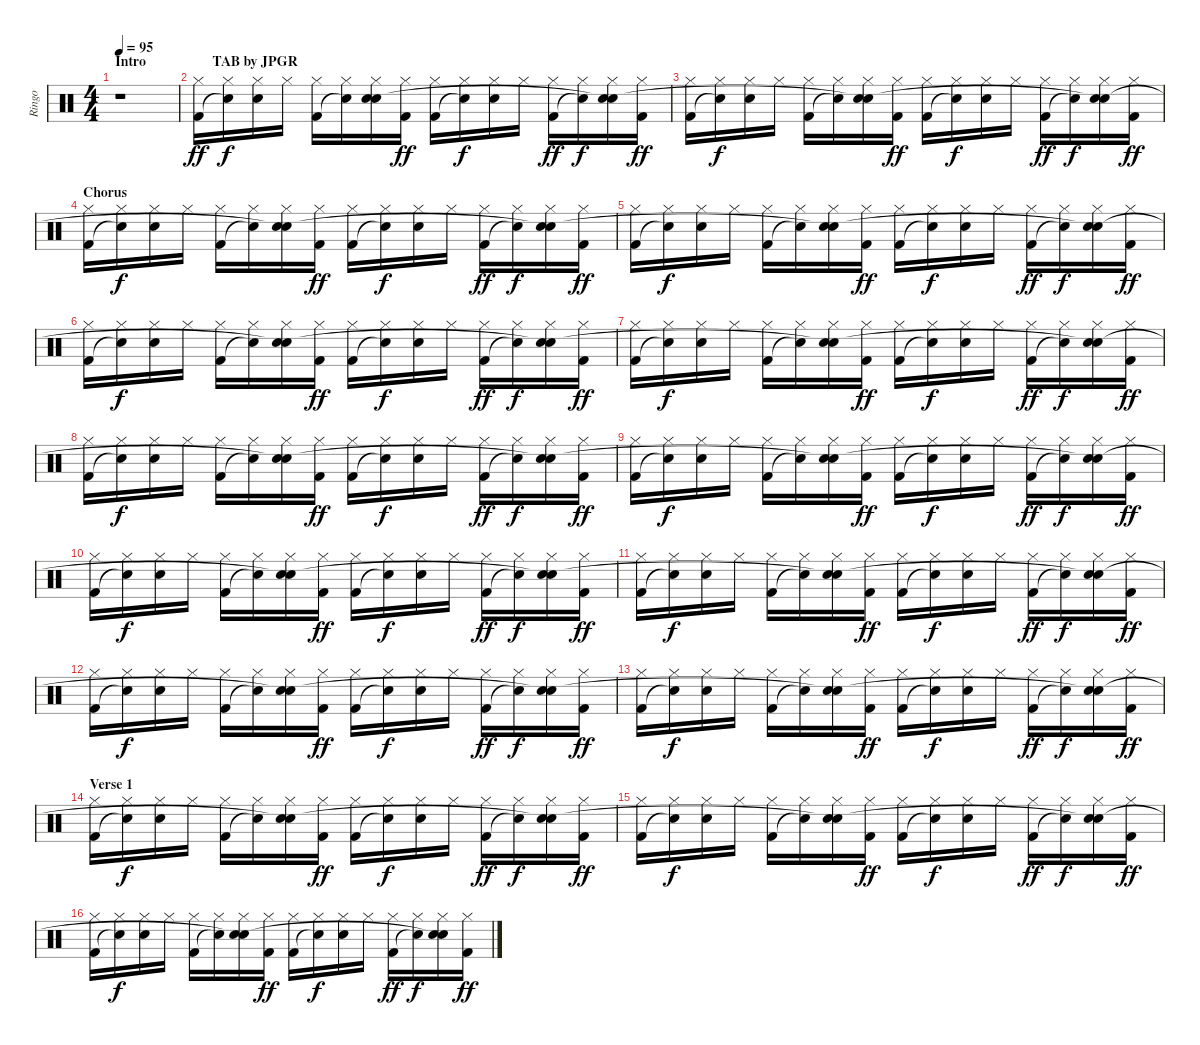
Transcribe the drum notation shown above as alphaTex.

\track ("Ringo" "Ringo") {instrument percussion}
\staff {score}
\articulation defaults
\ts (4 4)
\section ("" "Intro                   TAB by JPGR")
\tempo 95
\clef neutral
\ks c
r.1{dy ff} |
("Hi-Hat (closed)" "Kick (hit) 2").16 ("Hi-Hat (closed)" "Snare (hit)"{t}).16{dy f} ("Hi-Hat (closed)" "Snare (hit) 2").16 "Hi-Hat (closed)".16 ("Hi-Hat (closed)" "Kick (hit) 2").16 ("Hi-Hat (closed)" "Snare (hit)"{t}).16 ("Hi-Hat (closed)" "Snare (hit) 2" "Snare (hit)").16 ("Hi-Hat (closed)" "Kick (hit) 2").16{dy ff} ("Hi-Hat (closed)" "Kick (hit) 2").16 ("Hi-Hat (closed)" "Snare (hit)"{t}).16{dy f} ("Hi-Hat (closed)" "Snare (hit) 2").16 "Hi-Hat (closed)".16 ("Hi-Hat (closed)" "Kick (hit) 2").16{dy ff} ("Hi-Hat (closed)" "Snare (hit)"{t}).16{dy f} ("Hi-Hat (closed)" "Snare (hit) 2" "Snare (hit)"{t}).16 ("Hi-Hat (closed)" "Kick (hit) 2").16{dy ff} |
("Hi-Hat (closed)" "Kick (hit) 2").16 ("Hi-Hat (closed)" "Snare (hit)"{t}).16{dy f} ("Hi-Hat (closed)" "Snare (hit) 2").16 "Hi-Hat (closed)".16 ("Hi-Hat (closed)" "Kick (hit) 2").16 ("Hi-Hat (closed)" "Snare (hit)"{t}).16 ("Hi-Hat (closed)" "Snare (hit) 2" "Snare (hit)"{t}).16 ("Hi-Hat (closed)" "Kick (hit) 2").16{dy ff} ("Hi-Hat (closed)" "Kick (hit) 2").16 ("Hi-Hat (closed)" "Snare (hit)"{t}).16{dy f} ("Hi-Hat (closed)" "Snare (hit) 2").16 "Hi-Hat (closed)".16 ("Hi-Hat (closed)" "Kick (hit) 2").16{dy ff} ("Hi-Hat (closed)" "Snare (hit)"{t}).16{dy f} ("Hi-Hat (closed)" "Snare (hit) 2" "Snare (hit)"{t}).16 ("Hi-Hat (closed)" "Kick (hit) 2").16{dy ff} |
\section ("" "Chorus")
("Hi-Hat (closed)" "Kick (hit) 2").16 ("Hi-Hat (closed)" "Snare (hit)"{t}).16{dy f} ("Hi-Hat (closed)" "Snare (hit) 2").16 "Hi-Hat (closed)".16 ("Hi-Hat (closed)" "Kick (hit) 2").16 ("Hi-Hat (closed)" "Snare (hit)"{t}).16 ("Hi-Hat (closed)" "Snare (hit) 2" "Snare (hit)"{t}).16 ("Hi-Hat (closed)" "Kick (hit) 2").16{dy ff} ("Hi-Hat (closed)" "Kick (hit) 2").16 ("Hi-Hat (closed)" "Snare (hit)"{t}).16{dy f} ("Hi-Hat (closed)" "Snare (hit) 2").16 "Hi-Hat (closed)".16 ("Hi-Hat (closed)" "Kick (hit) 2").16{dy ff} ("Hi-Hat (closed)" "Snare (hit)"{t}).16{dy f} ("Hi-Hat (closed)" "Snare (hit) 2" "Snare (hit)"{t}).16 ("Hi-Hat (closed)" "Kick (hit) 2").16{dy ff} |
("Hi-Hat (closed)" "Kick (hit) 2").16 ("Hi-Hat (closed)" "Snare (hit)"{t}).16{dy f} ("Hi-Hat (closed)" "Snare (hit) 2").16 "Hi-Hat (closed)".16 ("Hi-Hat (closed)" "Kick (hit) 2").16 ("Hi-Hat (closed)" "Snare (hit)"{t}).16 ("Hi-Hat (closed)" "Snare (hit) 2" "Snare (hit)"{t}).16 ("Hi-Hat (closed)" "Kick (hit) 2").16{dy ff} ("Hi-Hat (closed)" "Kick (hit) 2").16 ("Hi-Hat (closed)" "Snare (hit)"{t}).16{dy f} ("Hi-Hat (closed)" "Snare (hit) 2").16 "Hi-Hat (closed)".16 ("Hi-Hat (closed)" "Kick (hit) 2").16{dy ff} ("Hi-Hat (closed)" "Snare (hit)"{t}).16{dy f} ("Hi-Hat (closed)" "Snare (hit) 2" "Snare (hit)"{t}).16 ("Hi-Hat (closed)" "Kick (hit) 2").16{dy ff} |
("Hi-Hat (closed)" "Kick (hit) 2").16 ("Hi-Hat (closed)" "Snare (hit)"{t}).16{dy f} ("Hi-Hat (closed)" "Snare (hit) 2").16 "Hi-Hat (closed)".16 ("Hi-Hat (closed)" "Kick (hit) 2").16 ("Hi-Hat (closed)" "Snare (hit)"{t}).16 ("Hi-Hat (closed)" "Snare (hit) 2" "Snare (hit)"{t}).16 ("Hi-Hat (closed)" "Kick (hit) 2").16{dy ff} ("Hi-Hat (closed)" "Kick (hit) 2").16 ("Hi-Hat (closed)" "Snare (hit)"{t}).16{dy f} ("Hi-Hat (closed)" "Snare (hit) 2").16 "Hi-Hat (closed)".16 ("Hi-Hat (closed)" "Kick (hit) 2").16{dy ff} ("Hi-Hat (closed)" "Snare (hit)"{t}).16{dy f} ("Hi-Hat (closed)" "Snare (hit) 2" "Snare (hit)"{t}).16 ("Hi-Hat (closed)" "Kick (hit) 2").16{dy ff} |
("Hi-Hat (closed)" "Kick (hit) 2").16 ("Hi-Hat (closed)" "Snare (hit)"{t}).16{dy f} ("Hi-Hat (closed)" "Snare (hit) 2").16 "Hi-Hat (closed)".16 ("Hi-Hat (closed)" "Kick (hit) 2").16 ("Hi-Hat (closed)" "Snare (hit)"{t}).16 ("Hi-Hat (closed)" "Snare (hit) 2" "Snare (hit)"{t}).16 ("Hi-Hat (closed)" "Kick (hit) 2").16{dy ff} ("Hi-Hat (closed)" "Kick (hit) 2").16 ("Hi-Hat (closed)" "Snare (hit)"{t}).16{dy f} ("Hi-Hat (closed)" "Snare (hit) 2").16 "Hi-Hat (closed)".16 ("Hi-Hat (closed)" "Kick (hit) 2").16{dy ff} ("Hi-Hat (closed)" "Snare (hit)"{t}).16{dy f} ("Hi-Hat (closed)" "Snare (hit) 2" "Snare (hit)"{t}).16 ("Hi-Hat (closed)" "Kick (hit) 2").16{dy ff} |
("Hi-Hat (closed)" "Kick (hit) 2").16 ("Hi-Hat (closed)" "Snare (hit)"{t}).16{dy f} ("Hi-Hat (closed)" "Snare (hit) 2").16 "Hi-Hat (closed)".16 ("Hi-Hat (closed)" "Kick (hit) 2").16 ("Hi-Hat (closed)" "Snare (hit)"{t}).16 ("Hi-Hat (closed)" "Snare (hit) 2" "Snare (hit)"{t}).16 ("Hi-Hat (closed)" "Kick (hit) 2").16{dy ff} ("Hi-Hat (closed)" "Kick (hit) 2").16 ("Hi-Hat (closed)" "Snare (hit)"{t}).16{dy f} ("Hi-Hat (closed)" "Snare (hit) 2").16 "Hi-Hat (closed)".16 ("Hi-Hat (closed)" "Kick (hit) 2").16{dy ff} ("Hi-Hat (closed)" "Snare (hit)"{t}).16{dy f} ("Hi-Hat (closed)" "Snare (hit) 2" "Snare (hit)"{t}).16 ("Hi-Hat (closed)" "Kick (hit) 2").16{dy ff} |
("Hi-Hat (closed)" "Kick (hit) 2").16 ("Hi-Hat (closed)" "Snare (hit)"{t}).16{dy f} ("Hi-Hat (closed)" "Snare (hit) 2").16 "Hi-Hat (closed)".16 ("Hi-Hat (closed)" "Kick (hit) 2").16 ("Hi-Hat (closed)" "Snare (hit)"{t}).16 ("Hi-Hat (closed)" "Snare (hit) 2" "Snare (hit)"{t}).16 ("Hi-Hat (closed)" "Kick (hit) 2").16{dy ff} ("Hi-Hat (closed)" "Kick (hit) 2").16 ("Hi-Hat (closed)" "Snare (hit)"{t}).16{dy f} ("Hi-Hat (closed)" "Snare (hit) 2").16 "Hi-Hat (closed)".16 ("Hi-Hat (closed)" "Kick (hit) 2").16{dy ff} ("Hi-Hat (closed)" "Snare (hit)"{t}).16{dy f} ("Hi-Hat (closed)" "Snare (hit) 2" "Snare (hit)"{t}).16 ("Hi-Hat (closed)" "Kick (hit) 2").16{dy ff} |
("Hi-Hat (closed)" "Kick (hit) 2").16 ("Hi-Hat (closed)" "Snare (hit)"{t}).16{dy f} ("Hi-Hat (closed)" "Snare (hit) 2").16 "Hi-Hat (closed)".16 ("Hi-Hat (closed)" "Kick (hit) 2").16 ("Hi-Hat (closed)" "Snare (hit)"{t}).16 ("Hi-Hat (closed)" "Snare (hit) 2" "Snare (hit)"{t}).16 ("Hi-Hat (closed)" "Kick (hit) 2").16{dy ff} ("Hi-Hat (closed)" "Kick (hit) 2").16 ("Hi-Hat (closed)" "Snare (hit)"{t}).16{dy f} ("Hi-Hat (closed)" "Snare (hit) 2").16 "Hi-Hat (closed)".16 ("Hi-Hat (closed)" "Kick (hit) 2").16{dy ff} ("Hi-Hat (closed)" "Snare (hit)"{t}).16{dy f} ("Hi-Hat (closed)" "Snare (hit) 2" "Snare (hit)"{t}).16 ("Hi-Hat (closed)" "Kick (hit) 2").16{dy ff} |
("Hi-Hat (closed)" "Kick (hit) 2").16 ("Hi-Hat (closed)" "Snare (hit)"{t}).16{dy f} ("Hi-Hat (closed)" "Snare (hit) 2").16 "Hi-Hat (closed)".16 ("Hi-Hat (closed)" "Kick (hit) 2").16 ("Hi-Hat (closed)" "Snare (hit)"{t}).16 ("Hi-Hat (closed)" "Snare (hit) 2" "Snare (hit)"{t}).16 ("Hi-Hat (closed)" "Kick (hit) 2").16{dy ff} ("Hi-Hat (closed)" "Kick (hit) 2").16 ("Hi-Hat (closed)" "Snare (hit)"{t}).16{dy f} ("Hi-Hat (closed)" "Snare (hit) 2").16 "Hi-Hat (closed)".16 ("Hi-Hat (closed)" "Kick (hit) 2").16{dy ff} ("Hi-Hat (closed)" "Snare (hit)"{t}).16{dy f} ("Hi-Hat (closed)" "Snare (hit) 2" "Snare (hit)"{t}).16 ("Hi-Hat (closed)" "Kick (hit) 2").16{dy ff} |
("Hi-Hat (closed)" "Kick (hit) 2").16 ("Hi-Hat (closed)" "Snare (hit)"{t}).16{dy f} ("Hi-Hat (closed)" "Snare (hit) 2").16 "Hi-Hat (closed)".16 ("Hi-Hat (closed)" "Kick (hit) 2").16 ("Hi-Hat (closed)" "Snare (hit)"{t}).16 ("Hi-Hat (closed)" "Snare (hit) 2" "Snare (hit)"{t}).16 ("Hi-Hat (closed)" "Kick (hit) 2").16{dy ff} ("Hi-Hat (closed)" "Kick (hit) 2").16 ("Hi-Hat (closed)" "Snare (hit)"{t}).16{dy f} ("Hi-Hat (closed)" "Snare (hit) 2").16 "Hi-Hat (closed)".16 ("Hi-Hat (closed)" "Kick (hit) 2").16{dy ff} ("Hi-Hat (closed)" "Snare (hit)"{t}).16{dy f} ("Hi-Hat (closed)" "Snare (hit) 2" "Snare (hit)"{t}).16 ("Hi-Hat (closed)" "Kick (hit) 2").16{dy ff} |
("Hi-Hat (closed)" "Kick (hit) 2").16 ("Hi-Hat (closed)" "Snare (hit)"{t}).16{dy f} ("Hi-Hat (closed)" "Snare (hit) 2").16 "Hi-Hat (closed)".16 ("Hi-Hat (closed)" "Kick (hit) 2").16 ("Hi-Hat (closed)" "Snare (hit)"{t}).16 ("Hi-Hat (closed)" "Snare (hit) 2" "Snare (hit)"{t}).16 ("Hi-Hat (closed)" "Kick (hit) 2").16{dy ff} ("Hi-Hat (closed)" "Kick (hit) 2").16 ("Hi-Hat (closed)" "Snare (hit)"{t}).16{dy f} ("Hi-Hat (closed)" "Snare (hit) 2").16 "Hi-Hat (closed)".16 ("Hi-Hat (closed)" "Kick (hit) 2").16{dy ff} ("Hi-Hat (closed)" "Snare (hit)"{t}).16{dy f} ("Hi-Hat (closed)" "Snare (hit) 2" "Snare (hit)"{t}).16 ("Hi-Hat (closed)" "Kick (hit) 2").16{dy ff} |
\section ("" "Verse 1")
("Hi-Hat (closed)" "Kick (hit) 2").16 ("Hi-Hat (closed)" "Snare (hit)"{t}).16{dy f} ("Hi-Hat (closed)" "Snare (hit) 2").16 "Hi-Hat (closed)".16 ("Hi-Hat (closed)" "Kick (hit) 2").16 ("Hi-Hat (closed)" "Snare (hit)"{t}).16 ("Hi-Hat (closed)" "Snare (hit) 2" "Snare (hit)"{t}).16 ("Hi-Hat (closed)" "Kick (hit) 2").16{dy ff} ("Hi-Hat (closed)" "Kick (hit) 2").16 ("Hi-Hat (closed)" "Snare (hit)"{t}).16{dy f} ("Hi-Hat (closed)" "Snare (hit) 2").16 "Hi-Hat (closed)".16 ("Hi-Hat (closed)" "Kick (hit) 2").16{dy ff} ("Hi-Hat (closed)" "Snare (hit)"{t}).16{dy f} ("Hi-Hat (closed)" "Snare (hit) 2" "Snare (hit)"{t}).16 ("Hi-Hat (closed)" "Kick (hit) 2").16{dy ff} |
("Hi-Hat (closed)" "Kick (hit) 2").16 ("Hi-Hat (closed)" "Snare (hit)"{t}).16{dy f} ("Hi-Hat (closed)" "Snare (hit) 2").16 "Hi-Hat (closed)".16 ("Hi-Hat (closed)" "Kick (hit) 2").16 ("Hi-Hat (closed)" "Snare (hit)"{t}).16 ("Hi-Hat (closed)" "Snare (hit) 2" "Snare (hit)"{t}).16 ("Hi-Hat (closed)" "Kick (hit) 2").16{dy ff} ("Hi-Hat (closed)" "Kick (hit) 2").16 ("Hi-Hat (closed)" "Snare (hit)"{t}).16{dy f} ("Hi-Hat (closed)" "Snare (hit) 2").16 "Hi-Hat (closed)".16 ("Hi-Hat (closed)" "Kick (hit) 2").16{dy ff} ("Hi-Hat (closed)" "Snare (hit)"{t}).16{dy f} ("Hi-Hat (closed)" "Snare (hit) 2" "Snare (hit)"{t}).16 ("Hi-Hat (closed)" "Kick (hit) 2").16{dy ff} |
("Hi-Hat (closed)" "Kick (hit) 2").16 ("Hi-Hat (closed)" "Snare (hit)"{t}).16{dy f} ("Hi-Hat (closed)" "Snare (hit) 2").16 "Hi-Hat (closed)".16 ("Hi-Hat (closed)" "Kick (hit) 2").16 ("Hi-Hat (closed)" "Snare (hit)"{t}).16 ("Hi-Hat (closed)" "Snare (hit) 2" "Snare (hit)"{t}).16 ("Hi-Hat (closed)" "Kick (hit) 2").16{dy ff} ("Hi-Hat (closed)" "Kick (hit) 2").16 ("Hi-Hat (closed)" "Snare (hit)"{t}).16{dy f} ("Hi-Hat (closed)" "Snare (hit) 2").16 "Hi-Hat (closed)".16 ("Hi-Hat (closed)" "Kick (hit) 2").16{dy ff} ("Hi-Hat (closed)" "Snare (hit)"{t}).16{dy f} ("Hi-Hat (closed)" "Snare (hit) 2" "Snare (hit)"{t}).16 ("Hi-Hat (closed)" "Kick (hit) 2").16{dy ff}
